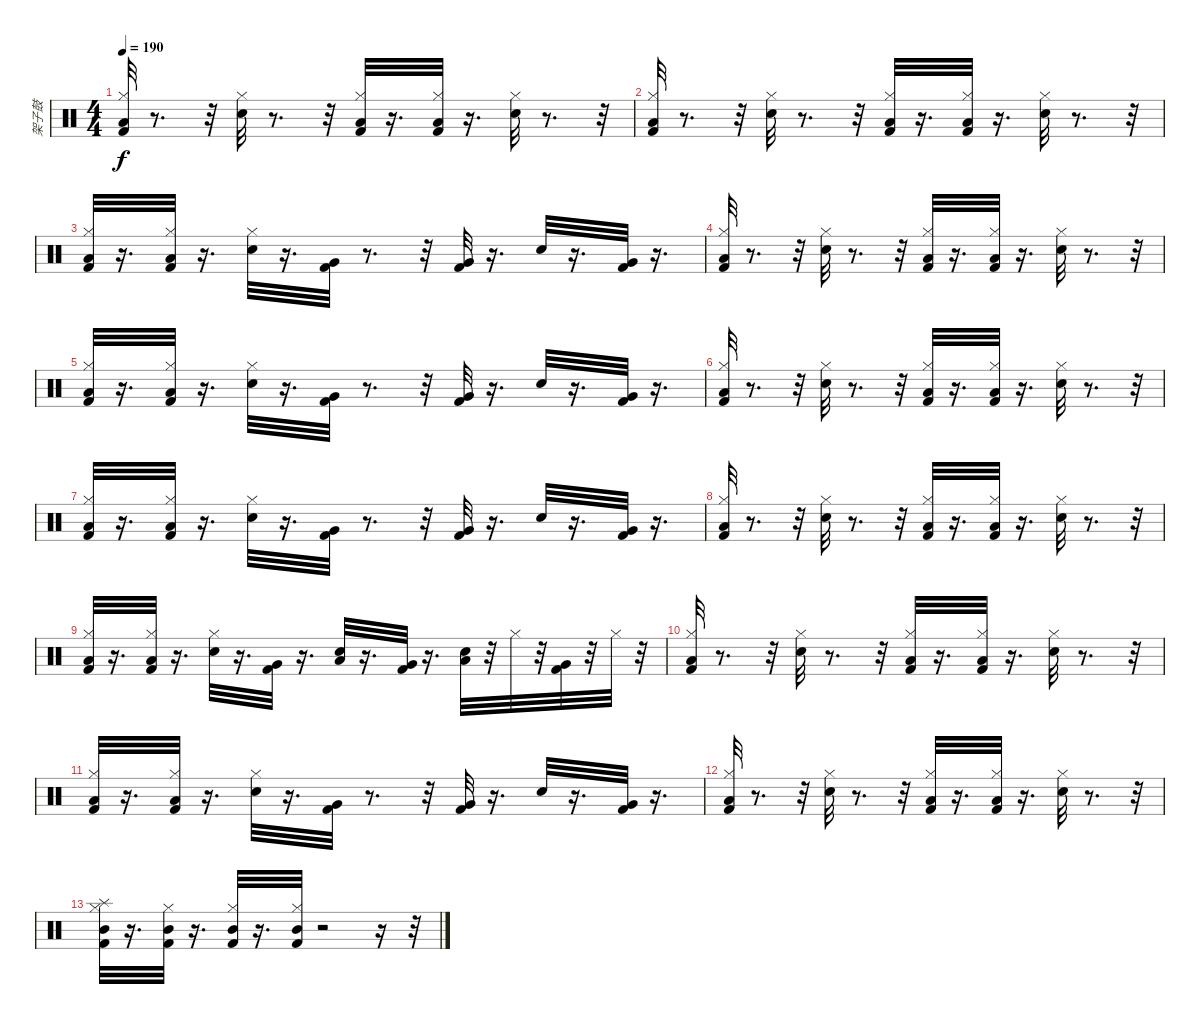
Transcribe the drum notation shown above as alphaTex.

\track ("架子鼓" "架子鼓") {instrument percussion}
\staff {score}
\articulation defaults
\ts (4 4)
\tempo 190
\clef neutral
\ks c
("Kick (hit) 2" "Hi-Hat (closed)" "Low Floor Tom (hit)").32{dy f} r.8{d} r.32 ("Hi-Hat (closed)" "Electric Snare (hit)").32 r.8{d} r.32 ("Kick (hit) 2" "Hi-Hat (closed)" "Low Floor Tom (hit)").32 r.16{d} ("Kick (hit) 2" "Hi-Hat (closed)" "Low Floor Tom (hit)").32 r.16{d} ("Hi-Hat (closed)" "Electric Snare (hit)").32 r.8{d} r.32 |
("Kick (hit) 2" "Hi-Hat (closed)" "Low Floor Tom (hit)").32 r.8{d} r.32 ("Hi-Hat (closed)" "Electric Snare (hit)").32 r.8{d} r.32 ("Kick (hit) 2" "Hi-Hat (closed)" "Low Floor Tom (hit)").32 r.16{d} ("Kick (hit) 2" "Hi-Hat (closed)" "Low Floor Tom (hit)").32 r.16{d} ("Hi-Hat (closed)" "Electric Snare (hit)").32 r.8{d} r.32 |
("Kick (hit) 2" "Hi-Hat (closed)" "Low Floor Tom (hit)").32 r.16{d} ("Kick (hit) 2" "Hi-Hat (closed)" "Low Floor Tom (hit)").32 r.16{d} ("Hi-Hat (closed)" "Electric Snare (hit)").32 r.16{d} ("Kick (hit) 2" "Very Low Tom (hit)").32 r.8{d} r.32 ("Kick (hit) 2" "Very Low Tom (hit)").32 r.16{d} "Snare (hit) 2".32 r.16{d} ("Kick (hit) 2" "Very Low Tom (hit)").32 r.16{d} |
("Kick (hit) 2" "Hi-Hat (closed)" "Low Floor Tom (hit)").32 r.8{d} r.32 ("Hi-Hat (closed)" "Electric Snare (hit)").32 r.8{d} r.32 ("Kick (hit) 2" "Hi-Hat (closed)" "Low Floor Tom (hit)").32 r.16{d} ("Kick (hit) 2" "Hi-Hat (closed)" "Low Floor Tom (hit)").32 r.16{d} ("Hi-Hat (closed)" "Electric Snare (hit)").32 r.8{d} r.32 |
("Kick (hit) 2" "Hi-Hat (closed)" "Low Floor Tom (hit)").32 r.16{d} ("Kick (hit) 2" "Hi-Hat (closed)" "Low Floor Tom (hit)").32 r.16{d} ("Hi-Hat (closed)" "Electric Snare (hit)").32 r.16{d} ("Kick (hit) 2" "Very Low Tom (hit)").32 r.8{d} r.32 ("Kick (hit) 2" "Very Low Tom (hit)").32 r.16{d} "Snare (hit) 2".32 r.16{d} ("Kick (hit) 2" "Very Low Tom (hit)").32 r.16{d} |
("Kick (hit) 2" "Hi-Hat (closed)" "Low Floor Tom (hit)").32 r.8{d} r.32 ("Hi-Hat (closed)" "Electric Snare (hit)").32 r.8{d} r.32 ("Kick (hit) 2" "Hi-Hat (closed)" "Low Floor Tom (hit)").32 r.16{d} ("Kick (hit) 2" "Hi-Hat (closed)" "Low Floor Tom (hit)").32 r.16{d} ("Hi-Hat (closed)" "Electric Snare (hit)").32 r.8{d} r.32 |
("Kick (hit) 2" "Hi-Hat (closed)" "Low Floor Tom (hit)").32 r.16{d} ("Kick (hit) 2" "Hi-Hat (closed)" "Low Floor Tom (hit)").32 r.16{d} ("Hi-Hat (closed)" "Electric Snare (hit)").32 r.16{d} ("Kick (hit) 2" "Very Low Tom (hit)").32 r.8{d} r.32 ("Kick (hit) 2" "Very Low Tom (hit)").32 r.16{d} "Snare (hit) 2".32 r.16{d} ("Kick (hit) 2" "Very Low Tom (hit)").32 r.16{d} |
("Kick (hit) 2" "Hi-Hat (closed)" "Low Floor Tom (hit)").32 r.8{d} r.32 ("Hi-Hat (closed)" "Electric Snare (hit)").32 r.8{d} r.32 ("Kick (hit) 2" "Hi-Hat (closed)" "Low Floor Tom (hit)").32 r.16{d} ("Kick (hit) 2" "Hi-Hat (closed)" "Low Floor Tom (hit)").32 r.16{d} ("Hi-Hat (closed)" "Electric Snare (hit)").32 r.8{d} r.32 |
("Kick (hit) 2" "Hi-Hat (closed)" "Low Floor Tom (hit)").32 r.16{d} ("Kick (hit) 2" "Hi-Hat (closed)" "Low Floor Tom (hit)").32 r.16{d} ("Hi-Hat (closed)" "Electric Snare (hit)").32 r.16{d} ("Kick (hit) 2" "Very Low Tom (hit)").32 r.16{d} ("Snare (hit) 2" "Low Floor Tom (hit)").32 r.16{d} ("Kick (hit) 2" "Very Low Tom (hit)").32 r.16{d} ("Low Floor Tom (hit)" "Snare (hit) 2").32 r.32 "Hi-Hat (closed)".32 r.32 ("Kick (hit) 2" "Very Low Tom (hit)").32 r.32 "Hi-Hat (closed)".32 r.32 |
("Kick (hit) 2" "Hi-Hat (closed)" "Low Floor Tom (hit)").32 r.8{d} r.32 ("Hi-Hat (closed)" "Electric Snare (hit)").32 r.8{d} r.32 ("Kick (hit) 2" "Hi-Hat (closed)" "Low Floor Tom (hit)").32 r.16{d} ("Kick (hit) 2" "Hi-Hat (closed)" "Low Floor Tom (hit)").32 r.16{d} ("Hi-Hat (closed)" "Electric Snare (hit)").32 r.8{d} r.32 |
("Kick (hit) 2" "Hi-Hat (closed)" "Low Floor Tom (hit)").32 r.16{d} ("Kick (hit) 2" "Hi-Hat (closed)" "Low Floor Tom (hit)").32 r.16{d} ("Hi-Hat (closed)" "Electric Snare (hit)").32 r.16{d} ("Kick (hit) 2" "Very Low Tom (hit)").32 r.8{d} r.32 ("Kick (hit) 2" "Very Low Tom (hit)").32 r.16{d} "Snare (hit) 2".32 r.16{d} ("Kick (hit) 2" "Very Low Tom (hit)").32 r.16{d} |
("Kick (hit) 2" "Hi-Hat (closed)" "Low Floor Tom (hit)").32 r.8{d} r.32 ("Hi-Hat (closed)" "Electric Snare (hit)").32 r.8{d} r.32 ("Kick (hit) 2" "Hi-Hat (closed)" "Low Floor Tom (hit)").32 r.16{d} ("Kick (hit) 2" "Hi-Hat (closed)" "Low Floor Tom (hit)").32 r.16{d} ("Hi-Hat (closed)" "Electric Snare (hit)").32 r.8{d} r.32 |
("Mid Tom (hit)" "Splash (hit)" "Kick (hit) 2" "Hi-Hat (closed)").32 r.16{d} ("Mid Tom (hit)" "Hi-Hat (closed)" "Kick (hit) 2").32 r.16{d} ("Mid Tom (hit)" "Kick (hit) 2" "Hi-Hat (closed)").32 r.16{d} ("Mid Tom (hit)" "Kick (hit) 2" "Hi-Hat (closed)").32 r.2 r.16 r.32
